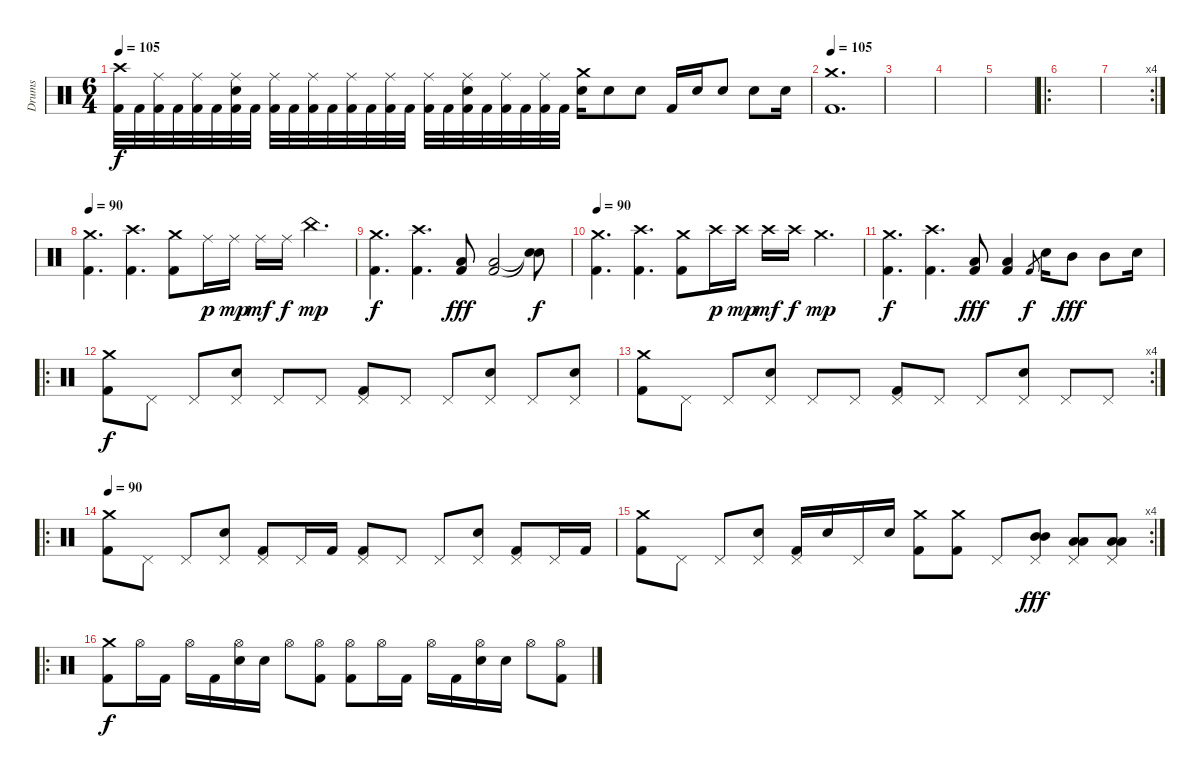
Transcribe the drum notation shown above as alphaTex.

\track ("Drums" "Drums") {instrument percussion}
\staff {score}
\articulation defaults
\ts (6 4)
\tempo 105
\clef neutral
\ks c
("Crash high (hit)" "Kick (hit) 2").32{dy f} "Kick (hit) 2".32 ("Ride (middle)" "Kick (hit) 2").32 "Kick (hit) 2".32 ("Ride (middle)" "Kick (hit) 2").32 "Kick (hit) 2".32 ("Ride (middle)" "Electric Snare (hit)" "Kick (hit) 2").32 "Kick (hit) 2".32 ("Ride (middle)" "Kick (hit) 2").32 "Kick (hit) 2".32 ("Ride (middle)" "Kick (hit) 2").32 "Kick (hit) 2".32 ("Ride (middle)" "Kick (hit) 2").32 "Kick (hit) 2".32 ("Ride (middle)" "Kick (hit) 2").32 "Kick (hit) 2".32 ("Ride (middle)" "Kick (hit) 2").32 "Kick (hit) 2".32 ("Ride (middle)" "Electric Snare (hit)" "Kick (hit) 2").32 "Kick (hit) 2".32 ("Ride (middle)" "Kick (hit) 2").32 "Kick (hit) 2".32 ("Ride (middle)" "Kick (hit) 2").32 "Kick (hit) 2".32 ("Crash medium (hit)" "Electric Snare (hit)").16 "Electric Snare (hit)".8 "Electric Snare (hit)".8 "Kick (hit) 2".16 "Electric Snare (hit)".16 "Electric Snare (hit)".8 "Electric Snare (hit)".8 "Electric Snare (hit)".16 |
\tempo 105
("Crash medium (hit)" "Kick (hit) 2").1{d} |
|
|
|
\ro
|
\rc 4
|
\tempo 90
("Crash medium (hit)" "Kick (hit) 2").4{d} ("Crash high (hit)" "Kick (hit) 2").4{d} ("Crash medium (hit)" "Kick (hit) 2").8 "Ride (middle)".16{dy p} "Ride (middle)".16{dy mp} "Ride (middle)".16{dy mf} "Ride (middle)".16{dy f} "China (hit)".4{d dy mp} |
("Crash medium (hit)" "Kick (hit) 2").4{d dy f} ("Crash high (hit)" "Kick (hit) 2").4{d} ("Low Floor Tom (hit)" "Kick (hit) 2").8{dy fff} ("Low Floor Tom (hit)" "Kick (hit) 2").2 ("Snare (hit)"{t} "Snare (hit)"{t}).8{dy f} |
\tempo 90
("Crash medium (hit)" "Kick (hit) 2").4{d} ("Crash high (hit)" "Kick (hit) 2").4{d} ("Crash medium (hit)" "Kick (hit) 2").8 "Crash high (hit)".16{dy p} "Crash high (hit)".16{dy mp} "Crash high (hit)".16{dy mf} "Crash high (hit)".16{dy f} "Crash medium (hit)".4{d dy mp} |
("Crash medium (hit)" "Kick (hit) 2").4{d dy f} ("Crash high (hit)" "Kick (hit) 2").4{d} ("Low Floor Tom (hit)" "Kick (hit) 2").8{dy fff} ("Low Floor Tom (hit)" "Kick (hit) 2").4 "Kick (hit) 2".8{gr dy f} "Electric Snare (hit)".16 "Mid Tom (hit)".8{dy fff} "Mid Tom (hit)".8 "Electric Snare (hit)".16 |
\ro
("Crash medium (hit)" "Kick (hit) 2").8{dy f} "Pedal Hi-Hat (hit)".8 "Pedal Hi-Hat (hit)".8 ("Pedal Hi-Hat (hit)" "Electric Snare (hit)").8 "Pedal Hi-Hat (hit)".8 "Pedal Hi-Hat (hit)".8 ("Pedal Hi-Hat (hit)" "Kick (hit) 2").8 "Pedal Hi-Hat (hit)".8 "Pedal Hi-Hat (hit)".8 ("Pedal Hi-Hat (hit)" "Electric Snare (hit)").8 "Pedal Hi-Hat (hit)".8 ("Pedal Hi-Hat (hit)" "Electric Snare (hit)").8 |
\rc 4
("Crash medium (hit)" "Kick (hit) 2").8 "Pedal Hi-Hat (hit)".8 "Pedal Hi-Hat (hit)".8 ("Pedal Hi-Hat (hit)" "Electric Snare (hit)").8 "Pedal Hi-Hat (hit)".8 "Pedal Hi-Hat (hit)".8 ("Pedal Hi-Hat (hit)" "Kick (hit) 2").8 "Pedal Hi-Hat (hit)".8 "Pedal Hi-Hat (hit)".8 ("Pedal Hi-Hat (hit)" "Electric Snare (hit)").8 "Pedal Hi-Hat (hit)".8 "Pedal Hi-Hat (hit)".8 |
\ro
\tempo 90
("Crash medium (hit)" "Kick (hit) 2").8 "Pedal Hi-Hat (hit)".8 "Pedal Hi-Hat (hit)".8 ("Pedal Hi-Hat (hit)" "Electric Snare (hit)").8 ("Pedal Hi-Hat (hit)" "Kick (hit) 2").8 "Pedal Hi-Hat (hit)".16 "Kick (hit) 2".16 ("Pedal Hi-Hat (hit)" "Kick (hit) 2").8 "Pedal Hi-Hat (hit)".8 "Pedal Hi-Hat (hit)".8 ("Pedal Hi-Hat (hit)" "Electric Snare (hit)").8 ("Pedal Hi-Hat (hit)" "Kick (hit) 2").8 "Pedal Hi-Hat (hit)".16 "Kick (hit) 2".16 |
\rc 4
("Crash medium (hit)" "Kick (hit) 2").8 "Pedal Hi-Hat (hit)".8 "Pedal Hi-Hat (hit)".8 ("Pedal Hi-Hat (hit)" "Electric Snare (hit)").8 ("Pedal Hi-Hat (hit)" "Kick (hit) 2").16 "Electric Snare (hit)".16 "Pedal Hi-Hat (hit)".16 "Electric Snare (hit)".16 ("Crash medium (hit)" "Kick (hit) 2").8 ("Crash medium (hit)" "Kick (hit) 2").8 "Pedal Hi-Hat (hit)".8 ("Pedal Hi-Hat (hit)" "Mid Tom (hit)" "Mid Tom (hit)").8{dy fff} ("Pedal Hi-Hat (hit)" "Low Tom (hit)" "Low Tom (hit)").8 ("Pedal Hi-Hat (hit)" "Low Floor Tom (hit)" "Low Floor Tom (hit)").8 |
\ro
("Crash medium (hit)" "Kick (hit) 2").8{dy f} "Hi-Hat (open)".16 "Kick (hit) 2".16 "Hi-Hat (open)".16 "Kick (hit) 2".16 ("Hi-Hat (open)" "Electric Snare (hit)").16 "Electric Snare (hit)".16 "Hi-Hat (open)".8 ("Hi-Hat (open)" "Kick (hit) 2").8 ("Hi-Hat (open)" "Kick (hit) 2").8 "Hi-Hat (open)".16 "Kick (hit) 2".16 "Hi-Hat (open)".16 "Kick (hit) 2".16 ("Hi-Hat (open)" "Electric Snare (hit)").16 "Electric Snare (hit)".16 "Hi-Hat (open)".8 ("Hi-Hat (open)" "Kick (hit) 2").8
